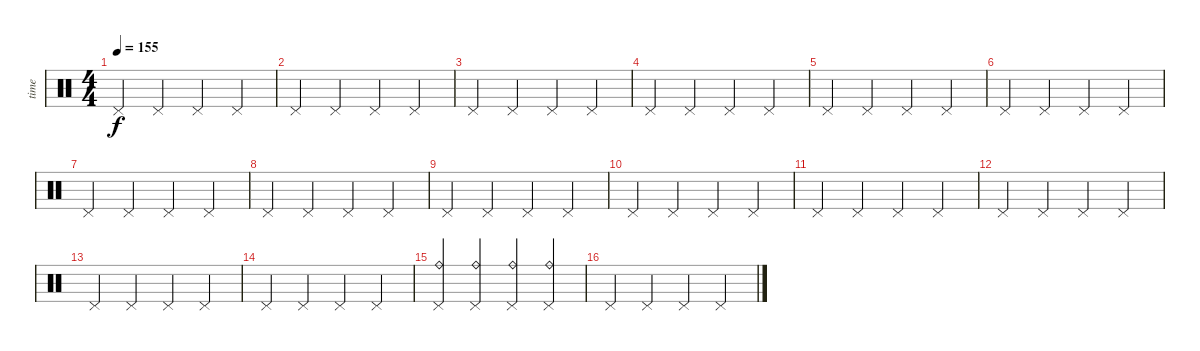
\track ("time" "time") {instrument percussion}
\staff {score}
\articulation defaults
\ts (4 4)
\tempo 155
\clef neutral
\ks c "Pedal Hi-Hat (hit)".4{dy f} "Pedal Hi-Hat (hit)".4 "Pedal Hi-Hat (hit)".4 "Pedal Hi-Hat (hit)".4
|
"Pedal Hi-Hat (hit)".4 "Pedal Hi-Hat (hit)".4 "Pedal Hi-Hat (hit)".4 "Pedal Hi-Hat (hit)".4 |
"Pedal Hi-Hat (hit)".4 "Pedal Hi-Hat (hit)".4 "Pedal Hi-Hat (hit)".4 "Pedal Hi-Hat (hit)".4 |
"Pedal Hi-Hat (hit)".4 "Pedal Hi-Hat (hit)".4 "Pedal Hi-Hat (hit)".4 "Pedal Hi-Hat (hit)".4 |
"Pedal Hi-Hat (hit)".4 "Pedal Hi-Hat (hit)".4 "Pedal Hi-Hat (hit)".4 "Pedal Hi-Hat (hit)".4 |
"Pedal Hi-Hat (hit)".4 "Pedal Hi-Hat (hit)".4 "Pedal Hi-Hat (hit)".4 "Pedal Hi-Hat (hit)".4 |
"Pedal Hi-Hat (hit)".4 "Pedal Hi-Hat (hit)".4 "Pedal Hi-Hat (hit)".4 "Pedal Hi-Hat (hit)".4 |
"Pedal Hi-Hat (hit)".4 "Pedal Hi-Hat (hit)".4 "Pedal Hi-Hat (hit)".4 "Pedal Hi-Hat (hit)".4 |
"Pedal Hi-Hat (hit)".4 "Pedal Hi-Hat (hit)".4 "Pedal Hi-Hat (hit)".4 "Pedal Hi-Hat (hit)".4 |
"Pedal Hi-Hat (hit)".4 "Pedal Hi-Hat (hit)".4 "Pedal Hi-Hat (hit)".4 "Pedal Hi-Hat (hit)".4 |
"Pedal Hi-Hat (hit)".4 "Pedal Hi-Hat (hit)".4 "Pedal Hi-Hat (hit)".4 "Pedal Hi-Hat (hit)".4 |
"Pedal Hi-Hat (hit)".4 "Pedal Hi-Hat (hit)".4 "Pedal Hi-Hat (hit)".4 "Pedal Hi-Hat (hit)".4 |
"Pedal Hi-Hat (hit)".4 "Pedal Hi-Hat (hit)".4 "Pedal Hi-Hat (hit)".4 "Pedal Hi-Hat (hit)".4 |
"Pedal Hi-Hat (hit)".4 "Pedal Hi-Hat (hit)".4 "Pedal Hi-Hat (hit)".4 "Pedal Hi-Hat (hit)".4 |
("Pedal Hi-Hat (hit)" "Ride (bell)").4 ("Pedal Hi-Hat (hit)" "Ride (bell)").4 ("Pedal Hi-Hat (hit)" "Ride (bell)").4 ("Pedal Hi-Hat (hit)" "Ride (bell)").4 |
"Pedal Hi-Hat (hit)".4 "Pedal Hi-Hat (hit)".4 "Pedal Hi-Hat (hit)".4 "Pedal Hi-Hat (hit)".4
